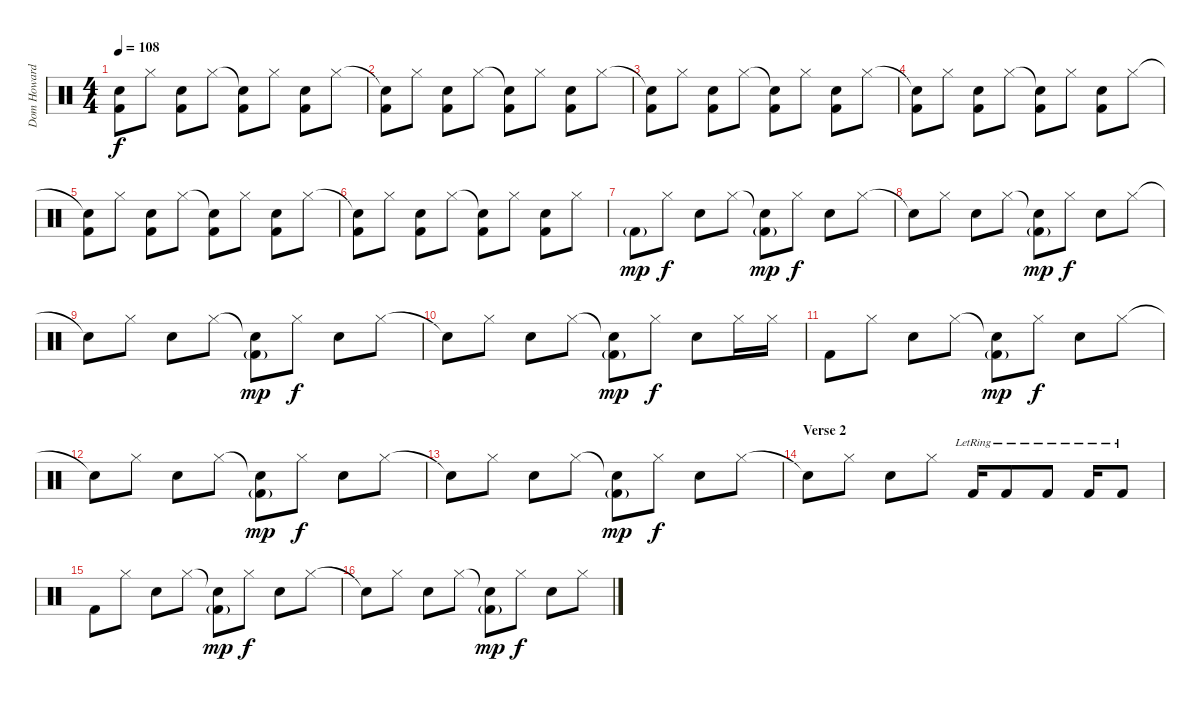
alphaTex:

\track ("Dom Howard" "Dom Howard") {instrument percussion}
\staff {score}
\articulation defaults
\ts (4 4)
\tempo 108
\clef neutral
\ks c
("Snare (hit)"{t} "Kick (hit) 2").8{dy f} "Hi-Hat (closed)".8 ("Electric Snare (hit)" "Kick (hit) 2").8 "Hi-Hat (closed)".8 ("Snare (hit)"{t} "Kick (hit) 2").8 "Hi-Hat (closed)".8 ("Electric Snare (hit)" "Kick (hit) 2").8 "Hi-Hat (closed)".8 |
("Snare (hit)"{t} "Kick (hit) 2").8 "Hi-Hat (closed)".8 ("Electric Snare (hit)" "Kick (hit) 2").8 "Hi-Hat (closed)".8 ("Snare (hit)"{t} "Kick (hit) 2").8 "Hi-Hat (closed)".8 ("Electric Snare (hit)" "Kick (hit) 2").8 "Hi-Hat (closed)".8 |
("Snare (hit)"{t} "Kick (hit) 2").8 "Hi-Hat (closed)".8 ("Electric Snare (hit)" "Kick (hit) 2").8 "Hi-Hat (closed)".8 ("Snare (hit)"{t} "Kick (hit) 2").8 "Hi-Hat (closed)".8 ("Electric Snare (hit)" "Kick (hit) 2").8 "Hi-Hat (closed)".8 |
("Snare (hit)"{t} "Kick (hit) 2").8 "Hi-Hat (closed)".8 ("Electric Snare (hit)" "Kick (hit) 2").8 "Hi-Hat (closed)".8 ("Snare (hit)"{t} "Kick (hit) 2").8 "Hi-Hat (closed)".8 ("Electric Snare (hit)" "Kick (hit) 2").8 "Hi-Hat (closed)".8 |
("Snare (hit)"{t} "Kick (hit) 2").8 "Hi-Hat (closed)".8 ("Electric Snare (hit)" "Kick (hit) 2").8 "Hi-Hat (closed)".8 ("Snare (hit)"{t} "Kick (hit) 2").8 "Hi-Hat (closed)".8 ("Electric Snare (hit)" "Kick (hit) 2").8 "Hi-Hat (closed)".8 |
("Snare (hit)"{t} "Kick (hit) 2").8 "Hi-Hat (closed)".8 ("Electric Snare (hit)" "Kick (hit) 2").8 "Hi-Hat (closed)".8 ("Snare (hit)"{t} "Kick (hit) 2").8 "Hi-Hat (closed)".8 ("Electric Snare (hit)" "Kick (hit) 2").8 "Hi-Hat (closed)".8 |
"Kick (hit) 2"{g}.8{dy mp} "Hi-Hat (closed)".8{dy f} "Electric Snare (hit)".8 "Hi-Hat (closed)".8 ("Snare (hit)"{t} "Kick (hit) 2"{g}).8{dy mp} "Hi-Hat (closed)".8{dy f} "Electric Snare (hit)".8 "Hi-Hat (closed)".8 |
"Snare (hit)"{t}.8 "Hi-Hat (closed)".8 "Electric Snare (hit)".8 "Hi-Hat (closed)".8 ("Snare (hit)"{t} "Kick (hit) 2"{g}).8{dy mp} "Hi-Hat (closed)".8{dy f} "Electric Snare (hit)".8 "Hi-Hat (closed)".8 |
"Snare (hit)"{t}.8 "Hi-Hat (closed)".8 "Electric Snare (hit)".8 "Hi-Hat (closed)".8 ("Snare (hit)"{t} "Kick (hit) 2"{g}).8{dy mp} "Hi-Hat (closed)".8{dy f} "Electric Snare (hit)".8 "Hi-Hat (closed)".8 |
"Snare (hit)"{t}.8 "Hi-Hat (closed)".8 "Electric Snare (hit)".8 "Hi-Hat (closed)".8 ("Snare (hit)"{t} "Kick (hit) 2"{g}).8{dy mp} "Hi-Hat (closed)".8{dy f} "Electric Snare (hit)".8 "Hi-Hat (closed)".16 "Hi-Hat (closed)".16 |
"Kick (hit) 2".8 "Hi-Hat (closed)".8 "Electric Snare (hit)".8 "Hi-Hat (closed)".8 ("Snare (hit)"{t} "Kick (hit) 2"{g}).8{dy mp} "Hi-Hat (closed)".8{dy f} "Electric Snare (hit)".8 "Hi-Hat (closed)".8 |
"Snare (hit)"{t}.8 "Hi-Hat (closed)".8 "Electric Snare (hit)".8 "Hi-Hat (closed)".8 ("Snare (hit)"{t} "Kick (hit) 2"{g}).8{dy mp} "Hi-Hat (closed)".8{dy f} "Electric Snare (hit)".8 "Hi-Hat (closed)".8 |
"Snare (hit)"{t}.8 "Hi-Hat (closed)".8 "Electric Snare (hit)".8 "Hi-Hat (closed)".8 ("Snare (hit)"{t} "Kick (hit) 2"{g}).8{dy mp} "Hi-Hat (closed)".8{dy f} "Electric Snare (hit)".8 "Hi-Hat (closed)".8 |
\section ("" "Verse 2")
"Snare (hit)"{t}.8 "Hi-Hat (closed)".8 "Electric Snare (hit)".8 "Hi-Hat (closed)".8 "Kick (hit) 2"{lr}.16 "Kick (hit) 2"{lr}.8 "Kick (hit) 2"{lr}.8 "Kick (hit) 2"{lr}.16 "Kick (hit) 2"{lr}.8 |
"Kick (hit) 2".8 "Hi-Hat (closed)".8 "Electric Snare (hit)".8 "Hi-Hat (closed)".8 ("Snare (hit)"{t} "Kick (hit) 2"{g}).8{dy mp} "Hi-Hat (closed)".8{dy f} "Electric Snare (hit)".8 "Hi-Hat (closed)".8 |
"Snare (hit)"{t}.8 "Hi-Hat (closed)".8 "Electric Snare (hit)".8 "Hi-Hat (closed)".8 ("Snare (hit)"{t} "Kick (hit) 2"{g}).8{dy mp} "Hi-Hat (closed)".8{dy f} "Electric Snare (hit)".8 "Hi-Hat (closed)".8
